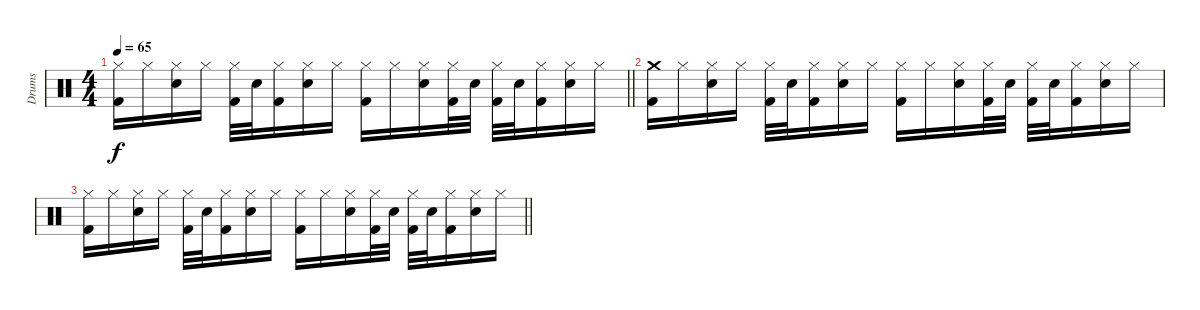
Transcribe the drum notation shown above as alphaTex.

\track ("Drums" "Drums") {instrument percussion}
\staff {score}
\articulation defaults
\ts (4 4)
\tempo 65
\clef neutral
\barLineRight lightlight
\ks c
("Hi-Hat (closed)" "Kick (hit) 2").16{dy f} "Hi-Hat (closed)".16 ("Hi-Hat (closed)" "Snare (hit) 2").16 "Hi-Hat (closed)".16 ("Hi-Hat (closed)" "Kick (hit) 2").32 "Snare (hit) 2".32 ("Hi-Hat (closed)" "Kick (hit) 2").16 ("Hi-Hat (closed)" "Snare (hit) 2").16 "Hi-Hat (closed)".16 ("Hi-Hat (closed)" "Kick (hit) 2").16 "Hi-Hat (closed)".16 ("Hi-Hat (closed)" "Snare (hit) 2").16 ("Hi-Hat (closed)" "Kick (hit) 2").32 "Snare (hit) 2".32 ("Hi-Hat (closed)" "Kick (hit) 2").32 "Snare (hit) 2".32 ("Hi-Hat (closed)" "Kick (hit) 2").16 ("Hi-Hat (closed)" "Snare (hit) 2").16 "Hi-Hat (closed)".16 |
("Crash medium (hit)" "Kick (hit) 2").16 "Hi-Hat (closed)".16 ("Hi-Hat (closed)" "Snare (hit) 2").16 "Hi-Hat (closed)".16 ("Hi-Hat (closed)" "Kick (hit) 2").32 "Snare (hit) 2".32 ("Hi-Hat (closed)" "Kick (hit) 2").16 ("Hi-Hat (closed)" "Snare (hit) 2").16 "Hi-Hat (closed)".16 ("Hi-Hat (closed)" "Kick (hit) 2").16 "Hi-Hat (closed)".16 ("Hi-Hat (closed)" "Snare (hit) 2").16 ("Hi-Hat (closed)" "Kick (hit) 2").32 "Snare (hit) 2".32 ("Hi-Hat (closed)" "Kick (hit) 2").32 "Snare (hit) 2".32 ("Hi-Hat (closed)" "Kick (hit) 2").16 ("Hi-Hat (closed)" "Snare (hit) 2").16 "Hi-Hat (closed)".16 |
\barLineRight lightlight
("Hi-Hat (closed)" "Kick (hit) 2").16 "Hi-Hat (closed)".16 ("Hi-Hat (closed)" "Snare (hit) 2").16 "Hi-Hat (closed)".16 ("Hi-Hat (closed)" "Kick (hit) 2").32 "Snare (hit) 2".32 ("Hi-Hat (closed)" "Kick (hit) 2").16 ("Hi-Hat (closed)" "Snare (hit) 2").16 "Hi-Hat (closed)".16 ("Hi-Hat (closed)" "Kick (hit) 2").16 "Hi-Hat (closed)".16 ("Hi-Hat (closed)" "Snare (hit) 2").16 ("Hi-Hat (closed)" "Kick (hit) 2").32 "Snare (hit) 2".32 ("Hi-Hat (closed)" "Kick (hit) 2").32 "Snare (hit) 2".32 ("Hi-Hat (closed)" "Kick (hit) 2").16 ("Hi-Hat (closed)" "Snare (hit) 2").16 "Hi-Hat (closed)".16
